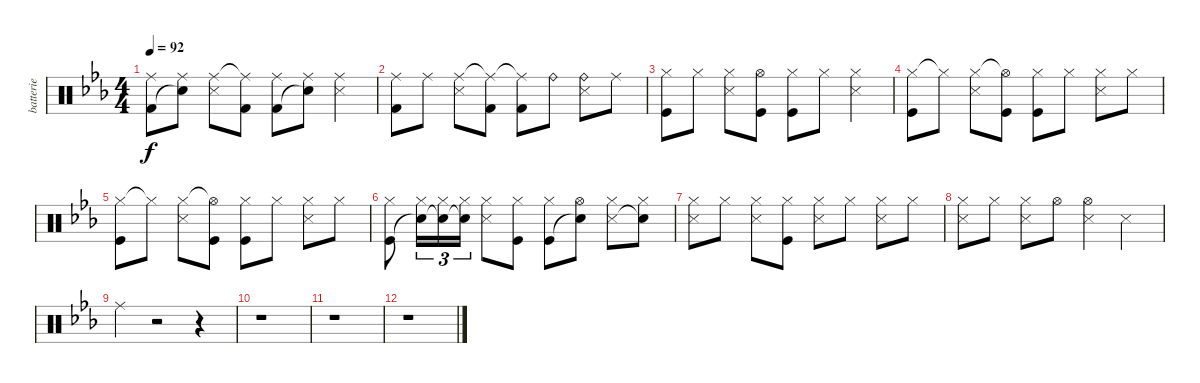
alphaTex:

\track ("batterie" "batterie") {instrument percussion}
\staff {score}
\articulation defaults
\ts (4 4)
\tempo 92
\clef neutral
\ks eb
("Ride (middle)" "Kick (hit) 2").8{dy f} ("Ride (middle)" "Snare (hit)"{t}).8 ("Ride (middle)" "Snare (side stick) 3").8 ("Ride (middle)"{t} "Kick (hit) 2").8 ("Ride (middle)" "Kick (hit) 2").8 ("Ride (middle)" "Snare (hit)"{t}).8 ("Ride (middle)" "Snare (side stick) 3").4 |
("Ride (middle)" "Kick (hit) 2").8 "Ride (middle)".8 ("Ride (middle)" "Snare (side stick) 3").8 ("Ride (middle)"{t} "Kick (hit) 2").8 ("Ride (middle)"{t} "Kick (hit) 2").8 "Ride (bell)".8 ("Ride (bell)" "Snare (side stick) 3").8 "Ride (middle)".8 |
("Hi-Hat (closed)" "Kick (hit)").8 "Hi-Hat (closed)".8 ("Hi-Hat (closed)" "Snare (side stick) 3").8 ("Hi-Hat (open)" "Kick (hit)").8 ("Hi-Hat (closed)" "Kick (hit)").8 "Hi-Hat (closed)".8 ("Hi-Hat (closed)" "Snare (side stick) 3").4 |
("Hi-Hat (closed)" "Kick (hit)").8 "Hi-Hat (closed)"{t}.8 ("Hi-Hat (closed)" "Snare (side stick) 3").8 ("Hi-Hat (open)"{t} "Kick (hit)").8 ("Hi-Hat (closed)" "Kick (hit)").8 "Hi-Hat (closed)".8 ("Hi-Hat (closed)" "Snare (side stick) 3").8 "Hi-Hat (closed)".8 |
("Hi-Hat (closed)" "Kick (hit)").8 "Hi-Hat (closed)"{t}.8 ("Hi-Hat (closed)" "Snare (side stick) 3").8 ("Hi-Hat (open)"{t} "Kick (hit)").8 ("Hi-Hat (closed)" "Kick (hit)").8 "Hi-Hat (closed)".8 ("Hi-Hat (closed)" "Snare (side stick) 3").8 "Hi-Hat (closed)".8 |
("Hi-Hat (closed)" "Kick (hit)").8 ("Hi-Hat (closed)" "Snare (hit)"{t}).16{tu (3 2)} ("Hi-Hat (closed)" "Snare (hit)"{t}).16{tu (3 2)} ("Hi-Hat (closed)" "Snare (hit)"{t}).16{tu (3 2)} ("Hi-Hat (closed)" "Snare (side stick) 3").8 ("Hi-Hat (closed)" "Kick (hit)").8 ("Hi-Hat (closed)" "Kick (hit)").8 ("Hi-Hat (open)" "Snare (hit)"{t}).8 ("Hi-Hat (closed)" "Snare (side stick) 3").8 ("Hi-Hat (closed)" "Snare (hit)"{t}).8 |
("Hi-Hat (closed)" "Snare (side stick) 3").8 "Hi-Hat (closed)".8 ("Hi-Hat (closed)" "Snare (side stick) 3").8 ("Hi-Hat (closed)" "Kick (hit)").8 ("Hi-Hat (closed)" "Snare (side stick) 3").8 "Hi-Hat (closed)".8 ("Hi-Hat (closed)" "Snare (side stick) 3").8 "Hi-Hat (closed)".8 |
("Hi-Hat (closed)" "Snare (side stick) 3").8 "Hi-Hat (closed)".8 ("Hi-Hat (closed)" "Snare (side stick) 3").8 "Hi-Hat (open)".8 ("Hi-Hat (open)" "Snare (side stick) 3").4 "Snare (side stick) 3".4 |
"Ride (middle)".4 r.2 r.4 |
r.1 |
r.1 |
r.1
